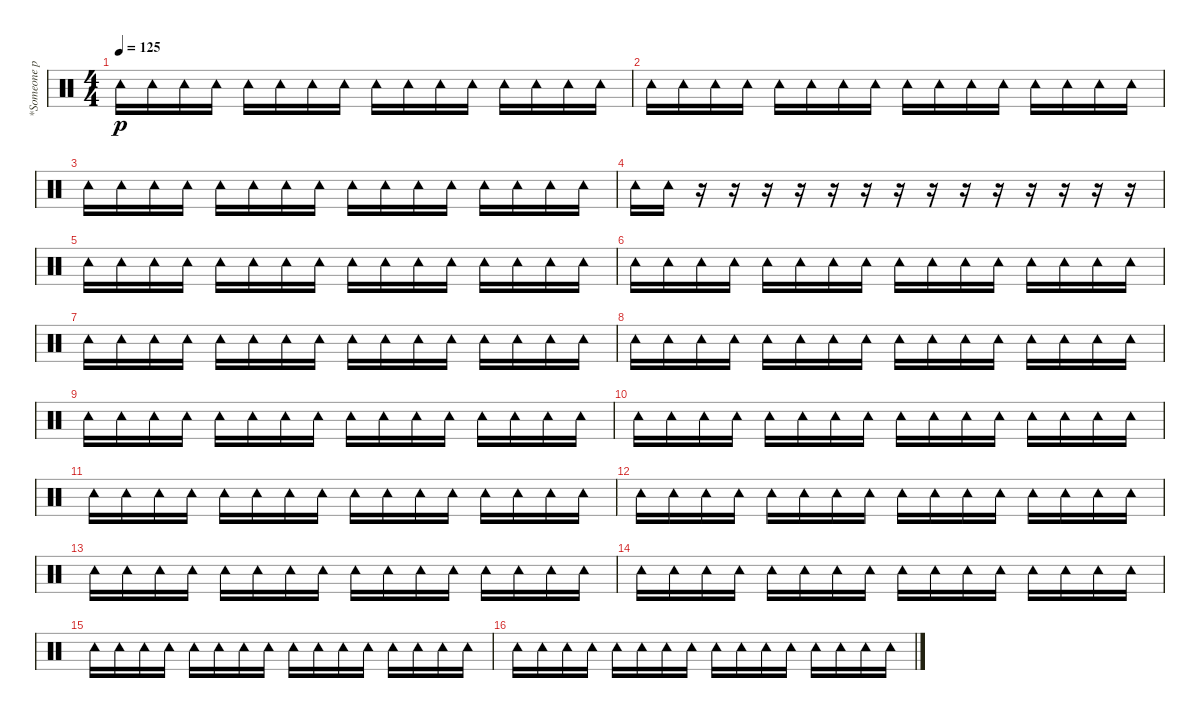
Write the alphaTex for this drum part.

\track ("*Someone play the tambourine" "*Someone p") {instrument percussion}
\staff {score}
\articulation defaults
\ts (4 4)
\tempo 125
\clef neutral
\ks c "Tambourine (hit)".16{dy p} "Tambourine (hit)".16 "Tambourine (hit)".16 "Tambourine (hit)".16 "Tambourine (hit)".16 "Tambourine (hit)".16 "Tambourine (hit)".16 "Tambourine (hit)".16 "Tambourine (hit)".16 "Tambourine (hit)".16 "Tambourine (hit)".16 "Tambourine (hit)".16 "Tambourine (hit)".16 "Tambourine (hit)".16 "Tambourine (hit)".16 "Tambourine (hit)".16
|
"Tambourine (hit)".16 "Tambourine (hit)".16 "Tambourine (hit)".16 "Tambourine (hit)".16 "Tambourine (hit)".16 "Tambourine (hit)".16 "Tambourine (hit)".16 "Tambourine (hit)".16 "Tambourine (hit)".16 "Tambourine (hit)".16 "Tambourine (hit)".16 "Tambourine (hit)".16 "Tambourine (hit)".16 "Tambourine (hit)".16 "Tambourine (hit)".16 "Tambourine (hit)".16 |
"Tambourine (hit)".16 "Tambourine (hit)".16 "Tambourine (hit)".16 "Tambourine (hit)".16 "Tambourine (hit)".16 "Tambourine (hit)".16 "Tambourine (hit)".16 "Tambourine (hit)".16 "Tambourine (hit)".16 "Tambourine (hit)".16 "Tambourine (hit)".16 "Tambourine (hit)".16 "Tambourine (hit)".16 "Tambourine (hit)".16 "Tambourine (hit)".16 "Tambourine (hit)".16 |
"Tambourine (hit)".16 "Tambourine (hit)".16 r.16 r.16 r.16 r.16 r.16 r.16 r.16 r.16 r.16 r.16 r.16 r.16 r.16 r.16 |
"Tambourine (hit)".16 "Tambourine (hit)".16 "Tambourine (hit)".16 "Tambourine (hit)".16 "Tambourine (hit)".16 "Tambourine (hit)".16 "Tambourine (hit)".16 "Tambourine (hit)".16 "Tambourine (hit)".16 "Tambourine (hit)".16 "Tambourine (hit)".16 "Tambourine (hit)".16 "Tambourine (hit)".16 "Tambourine (hit)".16 "Tambourine (hit)".16 "Tambourine (hit)".16 |
"Tambourine (hit)".16 "Tambourine (hit)".16 "Tambourine (hit)".16 "Tambourine (hit)".16 "Tambourine (hit)".16 "Tambourine (hit)".16 "Tambourine (hit)".16 "Tambourine (hit)".16 "Tambourine (hit)".16 "Tambourine (hit)".16 "Tambourine (hit)".16 "Tambourine (hit)".16 "Tambourine (hit)".16 "Tambourine (hit)".16 "Tambourine (hit)".16 "Tambourine (hit)".16 |
"Tambourine (hit)".16 "Tambourine (hit)".16 "Tambourine (hit)".16 "Tambourine (hit)".16 "Tambourine (hit)".16 "Tambourine (hit)".16 "Tambourine (hit)".16 "Tambourine (hit)".16 "Tambourine (hit)".16 "Tambourine (hit)".16 "Tambourine (hit)".16 "Tambourine (hit)".16 "Tambourine (hit)".16 "Tambourine (hit)".16 "Tambourine (hit)".16 "Tambourine (hit)".16 |
"Tambourine (hit)".16 "Tambourine (hit)".16 "Tambourine (hit)".16 "Tambourine (hit)".16 "Tambourine (hit)".16 "Tambourine (hit)".16 "Tambourine (hit)".16 "Tambourine (hit)".16 "Tambourine (hit)".16 "Tambourine (hit)".16 "Tambourine (hit)".16 "Tambourine (hit)".16 "Tambourine (hit)".16 "Tambourine (hit)".16 "Tambourine (hit)".16 "Tambourine (hit)".16 |
"Tambourine (hit)".16 "Tambourine (hit)".16 "Tambourine (hit)".16 "Tambourine (hit)".16 "Tambourine (hit)".16 "Tambourine (hit)".16 "Tambourine (hit)".16 "Tambourine (hit)".16 "Tambourine (hit)".16 "Tambourine (hit)".16 "Tambourine (hit)".16 "Tambourine (hit)".16 "Tambourine (hit)".16 "Tambourine (hit)".16 "Tambourine (hit)".16 "Tambourine (hit)".16 |
"Tambourine (hit)".16 "Tambourine (hit)".16 "Tambourine (hit)".16 "Tambourine (hit)".16 "Tambourine (hit)".16 "Tambourine (hit)".16 "Tambourine (hit)".16 "Tambourine (hit)".16 "Tambourine (hit)".16 "Tambourine (hit)".16 "Tambourine (hit)".16 "Tambourine (hit)".16 "Tambourine (hit)".16 "Tambourine (hit)".16 "Tambourine (hit)".16 "Tambourine (hit)".16 |
"Tambourine (hit)".16 "Tambourine (hit)".16 "Tambourine (hit)".16 "Tambourine (hit)".16 "Tambourine (hit)".16 "Tambourine (hit)".16 "Tambourine (hit)".16 "Tambourine (hit)".16 "Tambourine (hit)".16 "Tambourine (hit)".16 "Tambourine (hit)".16 "Tambourine (hit)".16 "Tambourine (hit)".16 "Tambourine (hit)".16 "Tambourine (hit)".16 "Tambourine (hit)".16 |
"Tambourine (hit)".16 "Tambourine (hit)".16 "Tambourine (hit)".16 "Tambourine (hit)".16 "Tambourine (hit)".16 "Tambourine (hit)".16 "Tambourine (hit)".16 "Tambourine (hit)".16 "Tambourine (hit)".16 "Tambourine (hit)".16 "Tambourine (hit)".16 "Tambourine (hit)".16 "Tambourine (hit)".16 "Tambourine (hit)".16 "Tambourine (hit)".16 "Tambourine (hit)".16 |
"Tambourine (hit)".16 "Tambourine (hit)".16 "Tambourine (hit)".16 "Tambourine (hit)".16 "Tambourine (hit)".16 "Tambourine (hit)".16 "Tambourine (hit)".16 "Tambourine (hit)".16 "Tambourine (hit)".16 "Tambourine (hit)".16 "Tambourine (hit)".16 "Tambourine (hit)".16 "Tambourine (hit)".16 "Tambourine (hit)".16 "Tambourine (hit)".16 "Tambourine (hit)".16 |
"Tambourine (hit)".16 "Tambourine (hit)".16 "Tambourine (hit)".16 "Tambourine (hit)".16 "Tambourine (hit)".16 "Tambourine (hit)".16 "Tambourine (hit)".16 "Tambourine (hit)".16 "Tambourine (hit)".16 "Tambourine (hit)".16 "Tambourine (hit)".16 "Tambourine (hit)".16 "Tambourine (hit)".16 "Tambourine (hit)".16 "Tambourine (hit)".16 "Tambourine (hit)".16 |
"Tambourine (hit)".16 "Tambourine (hit)".16 "Tambourine (hit)".16 "Tambourine (hit)".16 "Tambourine (hit)".16 "Tambourine (hit)".16 "Tambourine (hit)".16 "Tambourine (hit)".16 "Tambourine (hit)".16 "Tambourine (hit)".16 "Tambourine (hit)".16 "Tambourine (hit)".16 "Tambourine (hit)".16 "Tambourine (hit)".16 "Tambourine (hit)".16 "Tambourine (hit)".16 |
"Tambourine (hit)".16 "Tambourine (hit)".16 "Tambourine (hit)".16 "Tambourine (hit)".16 "Tambourine (hit)".16 "Tambourine (hit)".16 "Tambourine (hit)".16 "Tambourine (hit)".16 "Tambourine (hit)".16 "Tambourine (hit)".16 "Tambourine (hit)".16 "Tambourine (hit)".16 "Tambourine (hit)".16 "Tambourine (hit)".16 "Tambourine (hit)".16 "Tambourine (hit)".16
